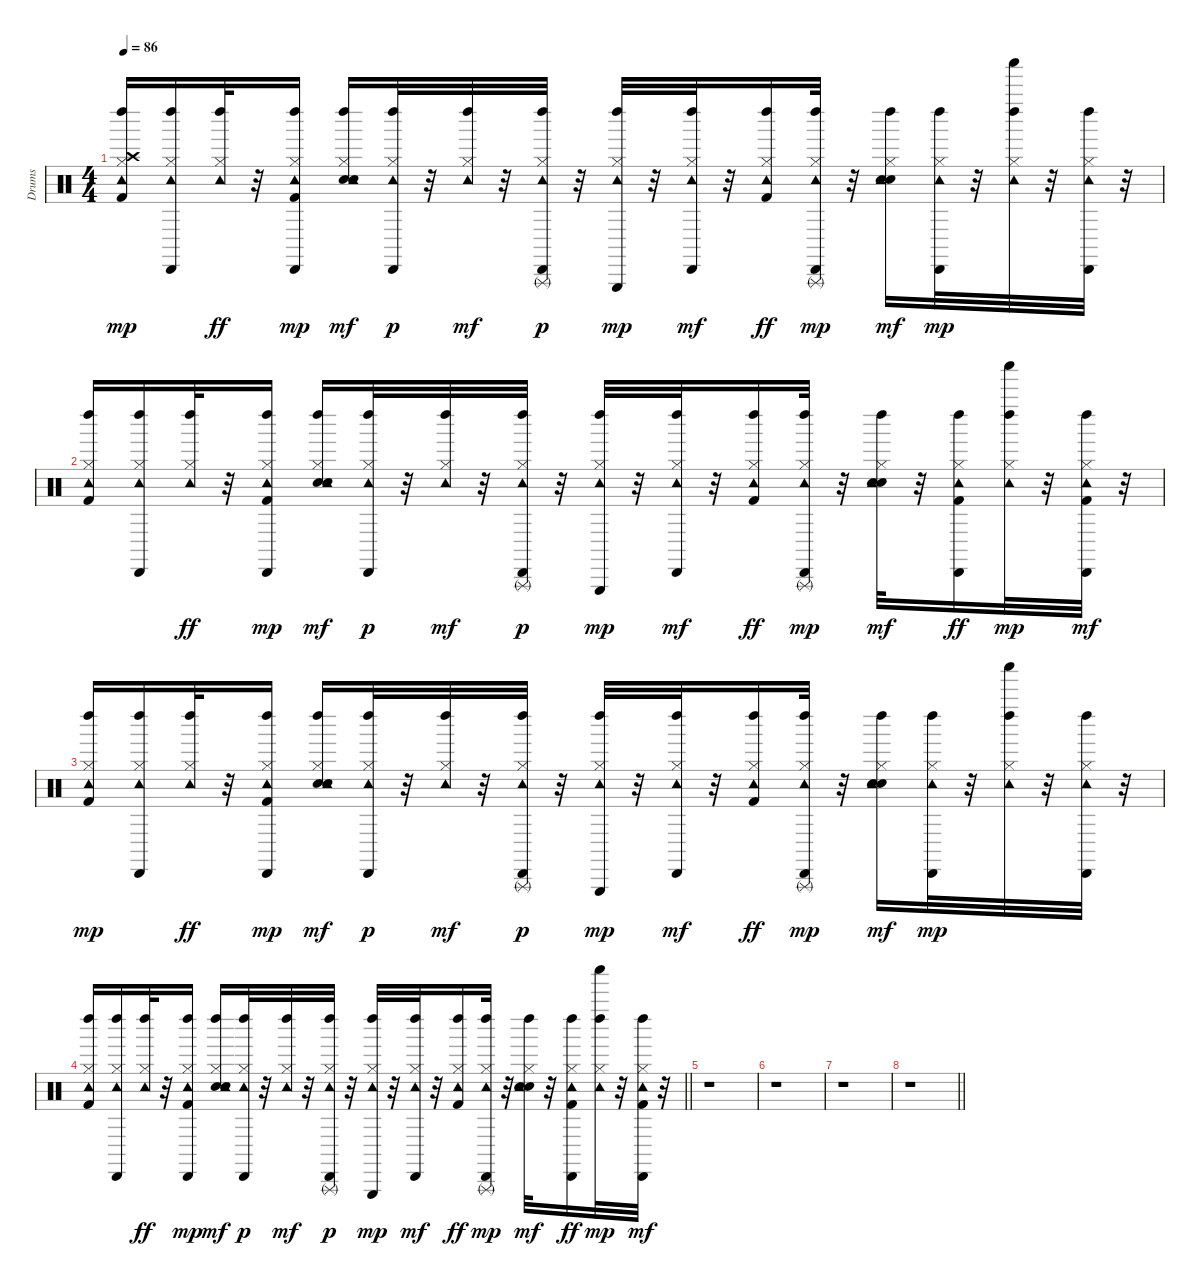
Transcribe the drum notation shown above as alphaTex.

\track ("Drums" "Drums") {instrument percussion}
\staff {score}
\articulation defaults
\ts (4 4)
\tempo 86
\clef neutral
\ks c
("Hi-Hat (closed)" "Crash high (hit)" "Tambourine (hit)" "Left Maraca (hit)" "Kick (hit) 2").16{dy mp} ("Hi-Hat (closed)" "Tambourine (hit)" "Cabasa (hit)" "Left Maraca (hit)").16 ("Hi-Hat (closed)" "Tambourine (hit)" "Left Maraca (hit)").32{dy ff} r.32 ("Hi-Hat (closed)" "Tambourine (hit)" "Cabasa (hit)" "Left Maraca (hit)" "Kick (hit) 2").16{dy mp} ("Hi-Hat (closed)" "Hand Clap (hit)" "Tambourine (hit)" "Left Maraca (hit)" "Electric Snare (hit)").16{dy mf} ("Hi-Hat (closed)" "Tambourine (hit)" "Cabasa (hit)" "Left Maraca (hit)").32{dy p} r.32 ("Hi-Hat (closed)" "Tambourine (hit)" "Left Maraca (hit)").32{dy mf} r.32 ("Hi-Hat (closed)" "Tambourine (hit)" "Cabasa (hit)" "Left Maraca (hit)" "Triangle (rnute)").32{dy p} r.32 ("Hi-Hat (closed)" "Tambourine (hit)" "Left Maraca (hit)" "Triangle (hit)").32{dy mp} r.32 ("Hi-Hat (closed)" "Tambourine (hit)" "Cabasa (hit)" "Left Maraca (hit)").32{dy mf} r.32 ("Hi-Hat (closed)" "Tambourine (hit)" "Left Maraca (hit)" "Kick (hit) 2").16{dy ff} ("Hi-Hat (closed)" "Tambourine (hit)" "Cabasa (hit)" "Left Maraca (hit)" "Triangle (rnute)").32{dy mp} r.32 ("Hi-Hat (closed)" "Hand Clap (hit)" "Tambourine (hit)" "Left Maraca (hit)" "Electric Snare (hit)").16{dy mf} ("Hi-Hat (closed)" "Tambourine (hit)" "Cabasa (hit)" "Left Maraca (hit)").32{dy mp} r.32 ("Hi-Hat (closed)" "Tambourine (hit)" "Left Maraca (hit)" "Shaker (hit)").32 r.32 ("Hi-Hat (closed)" "Tambourine (hit)" "Cabasa (hit)" "Left Maraca (hit)").32 r.32 |
("Hi-Hat (closed)" "Tambourine (hit)" "Left Maraca (hit)" "Kick (hit) 2").16 ("Hi-Hat (closed)" "Tambourine (hit)" "Cabasa (hit)" "Left Maraca (hit)").16 ("Hi-Hat (closed)" "Tambourine (hit)" "Left Maraca (hit)").32{dy ff} r.32 ("Hi-Hat (closed)" "Tambourine (hit)" "Cabasa (hit)" "Left Maraca (hit)" "Kick (hit) 2").16{dy mp} ("Hi-Hat (closed)" "Hand Clap (hit)" "Tambourine (hit)" "Left Maraca (hit)" "Electric Snare (hit)").16{dy mf} ("Hi-Hat (closed)" "Tambourine (hit)" "Cabasa (hit)" "Left Maraca (hit)").32{dy p} r.32 ("Hi-Hat (closed)" "Tambourine (hit)" "Left Maraca (hit)").32{dy mf} r.32 ("Hi-Hat (closed)" "Tambourine (hit)" "Cabasa (hit)" "Left Maraca (hit)" "Triangle (rnute)").32{dy p} r.32 ("Hi-Hat (closed)" "Tambourine (hit)" "Left Maraca (hit)" "Triangle (hit)").32{dy mp} r.32 ("Hi-Hat (closed)" "Tambourine (hit)" "Cabasa (hit)" "Left Maraca (hit)").32{dy mf} r.32 ("Hi-Hat (closed)" "Tambourine (hit)" "Left Maraca (hit)" "Kick (hit) 2").16{dy ff} ("Hi-Hat (closed)" "Tambourine (hit)" "Cabasa (hit)" "Left Maraca (hit)" "Triangle (rnute)").32{dy mp} r.32 ("Hi-Hat (closed)" "Hand Clap (hit)" "Tambourine (hit)" "Left Maraca (hit)" "Electric Snare (hit)").32{dy mf} r.32 ("Hi-Hat (closed)" "Tambourine (hit)" "Cabasa (hit)" "Left Maraca (hit)" "Kick (hit) 2").16{dy ff} ("Hi-Hat (closed)" "Tambourine (hit)" "Left Maraca (hit)" "Shaker (hit)").32{dy mp} r.32 ("Hi-Hat (closed)" "Tambourine (hit)" "Cabasa (hit)" "Left Maraca (hit)" "Kick (hit) 2").32{dy mf} r.32 |
("Hi-Hat (closed)" "Tambourine (hit)" "Left Maraca (hit)" "Kick (hit) 2").16{dy mp} ("Hi-Hat (closed)" "Tambourine (hit)" "Cabasa (hit)" "Left Maraca (hit)").16 ("Hi-Hat (closed)" "Tambourine (hit)" "Left Maraca (hit)").32{dy ff} r.32 ("Hi-Hat (closed)" "Tambourine (hit)" "Cabasa (hit)" "Left Maraca (hit)" "Kick (hit) 2").16{dy mp} ("Hi-Hat (closed)" "Hand Clap (hit)" "Tambourine (hit)" "Left Maraca (hit)" "Electric Snare (hit)").16{dy mf} ("Hi-Hat (closed)" "Tambourine (hit)" "Cabasa (hit)" "Left Maraca (hit)").32{dy p} r.32 ("Hi-Hat (closed)" "Tambourine (hit)" "Left Maraca (hit)").32{dy mf} r.32 ("Hi-Hat (closed)" "Tambourine (hit)" "Cabasa (hit)" "Left Maraca (hit)" "Triangle (rnute)").32{dy p} r.32 ("Hi-Hat (closed)" "Tambourine (hit)" "Left Maraca (hit)" "Triangle (hit)").32{dy mp} r.32 ("Hi-Hat (closed)" "Tambourine (hit)" "Cabasa (hit)" "Left Maraca (hit)").32{dy mf} r.32 ("Hi-Hat (closed)" "Tambourine (hit)" "Left Maraca (hit)" "Kick (hit) 2").16{dy ff} ("Hi-Hat (closed)" "Tambourine (hit)" "Cabasa (hit)" "Left Maraca (hit)" "Triangle (rnute)").32{dy mp} r.32 ("Hi-Hat (closed)" "Hand Clap (hit)" "Tambourine (hit)" "Left Maraca (hit)" "Electric Snare (hit)").16{dy mf} ("Hi-Hat (closed)" "Tambourine (hit)" "Cabasa (hit)" "Left Maraca (hit)").32{dy mp} r.32 ("Hi-Hat (closed)" "Tambourine (hit)" "Left Maraca (hit)" "Shaker (hit)").32 r.32 ("Hi-Hat (closed)" "Tambourine (hit)" "Cabasa (hit)" "Left Maraca (hit)").32 r.32 |
\barLineRight lightlight
("Hi-Hat (closed)" "Tambourine (hit)" "Left Maraca (hit)" "Kick (hit) 2").16 ("Hi-Hat (closed)" "Tambourine (hit)" "Cabasa (hit)" "Left Maraca (hit)").16 ("Hi-Hat (closed)" "Tambourine (hit)" "Left Maraca (hit)").32{dy ff} r.32 ("Hi-Hat (closed)" "Tambourine (hit)" "Cabasa (hit)" "Left Maraca (hit)" "Kick (hit) 2").16{dy mp} ("Hi-Hat (closed)" "Hand Clap (hit)" "Tambourine (hit)" "Left Maraca (hit)" "Electric Snare (hit)").16{dy mf} ("Hi-Hat (closed)" "Tambourine (hit)" "Cabasa (hit)" "Left Maraca (hit)").32{dy p} r.32 ("Hi-Hat (closed)" "Tambourine (hit)" "Left Maraca (hit)").32{dy mf} r.32 ("Hi-Hat (closed)" "Tambourine (hit)" "Cabasa (hit)" "Left Maraca (hit)" "Triangle (rnute)").32{dy p} r.32 ("Hi-Hat (closed)" "Tambourine (hit)" "Left Maraca (hit)" "Triangle (hit)").32{dy mp} r.32 ("Hi-Hat (closed)" "Tambourine (hit)" "Cabasa (hit)" "Left Maraca (hit)").32{dy mf} r.32 ("Hi-Hat (closed)" "Tambourine (hit)" "Left Maraca (hit)" "Kick (hit) 2").16{dy ff} ("Hi-Hat (closed)" "Tambourine (hit)" "Cabasa (hit)" "Left Maraca (hit)" "Triangle (rnute)").32{dy mp} r.32 ("Hi-Hat (closed)" "Hand Clap (hit)" "Tambourine (hit)" "Left Maraca (hit)" "Electric Snare (hit)").32{dy mf} r.32 ("Hi-Hat (closed)" "Tambourine (hit)" "Cabasa (hit)" "Left Maraca (hit)" "Kick (hit) 2").16{dy ff} ("Hi-Hat (closed)" "Tambourine (hit)" "Left Maraca (hit)" "Shaker (hit)").32{dy mp} r.32 ("Hi-Hat (closed)" "Tambourine (hit)" "Cabasa (hit)" "Left Maraca (hit)" "Kick (hit) 2").32{dy mf} r.32 |
r.1 |
r.1 |
r.1 |
\barLineRight lightlight
r.1
